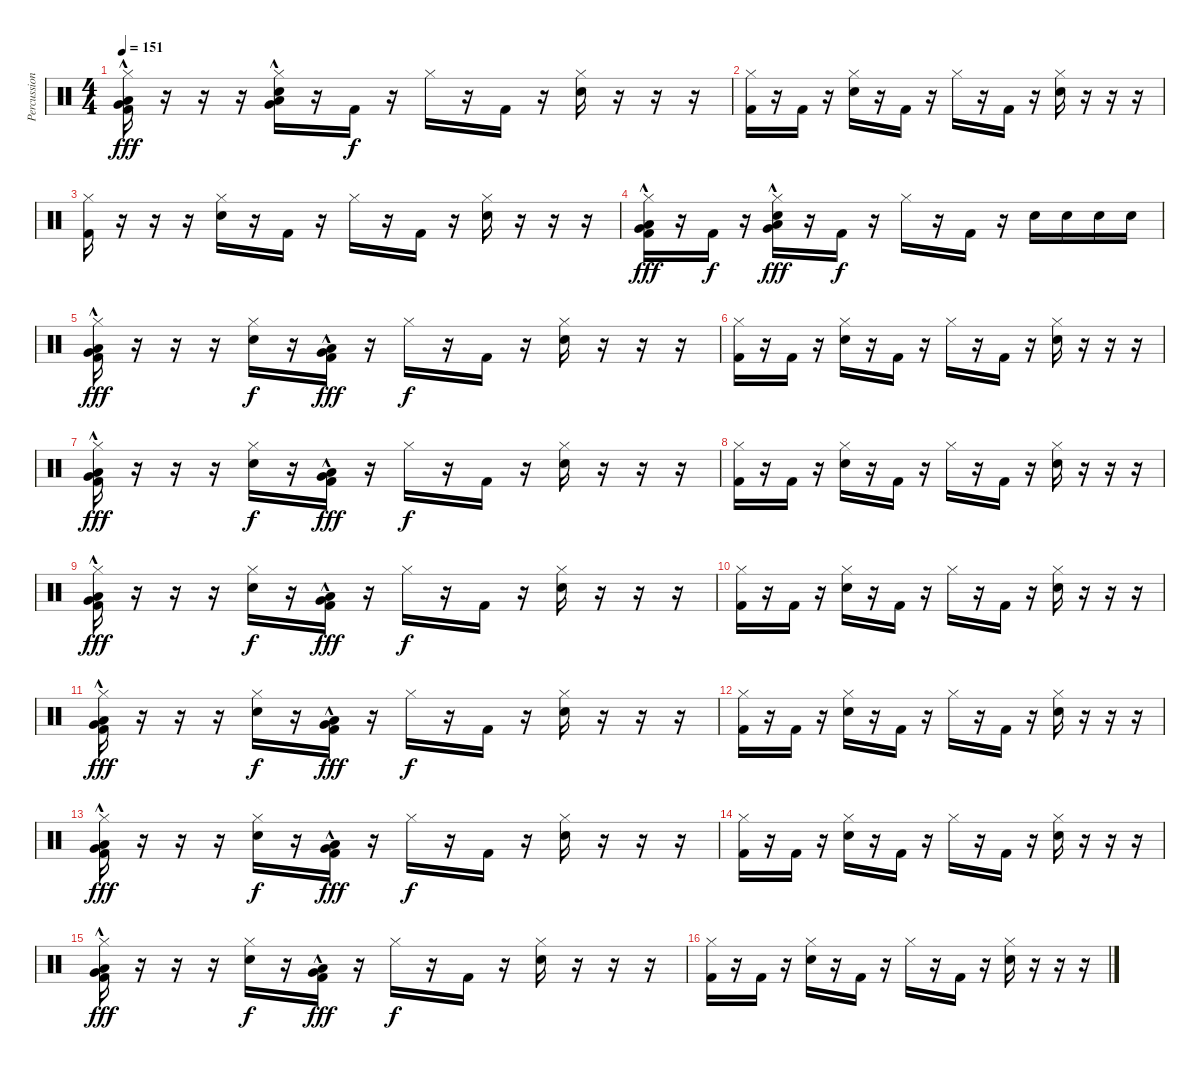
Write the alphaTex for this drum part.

\track ("Percussion" "Percussion") {instrument percussion}
\staff {score}
\articulation defaults
\ts (4 4)
\tempo 151
\clef neutral
\ks c
("Hi-Hat (closed)" "Very Low Tom (hit)"{hac} "Low Floor Tom (hit)"{hac} "Kick (hit) 2").16{dy fff} r.16 r.16 r.16 ("Hi-Hat (closed)" "Very Low Tom (hit)"{hac} "Low Floor Tom (hit)"{hac} "Snare (hit) 2").16 r.16 "Kick (hit) 2".16{dy f} r.16 "Hi-Hat (closed)".16 r.16 "Kick (hit) 2".16 r.16 ("Hi-Hat (closed)" "Snare (hit) 2").16 r.16 r.16 r.16 |
("Hi-Hat (closed)" "Kick (hit) 2").16 r.16 "Kick (hit) 2".16 r.16 ("Hi-Hat (closed)" "Snare (hit) 2").16 r.16 "Kick (hit) 2".16 r.16 "Hi-Hat (closed)".16 r.16 "Kick (hit) 2".16 r.16 ("Hi-Hat (closed)" "Snare (hit) 2").16 r.16 r.16 r.16 |
("Hi-Hat (closed)" "Kick (hit) 2").16 r.16 r.16 r.16 ("Hi-Hat (closed)" "Snare (hit) 2").16 r.16 "Kick (hit) 2".16 r.16 "Hi-Hat (closed)".16 r.16 "Kick (hit) 2".16 r.16 ("Hi-Hat (closed)" "Snare (hit) 2").16 r.16 r.16 r.16 |
("Hi-Hat (closed)" "Very Low Tom (hit)"{hac} "Low Floor Tom (hit)"{hac} "Kick (hit) 2").16{dy fff} r.16 "Kick (hit) 2".16{dy f} r.16 ("Hi-Hat (closed)" "Very Low Tom (hit)"{hac} "Low Floor Tom (hit)"{hac} "Snare (hit) 2").16{dy fff} r.16 "Kick (hit) 2".16{dy f} r.16 "Hi-Hat (closed)".16 r.16 "Kick (hit) 2".16 r.16 "Snare (hit) 2".16 "Snare (hit) 2".16 "Snare (hit) 2".16 "Snare (hit) 2".16 |
("Hi-Hat (closed)" "Low Floor Tom (hit)"{hac} "Very Low Tom (hit)"{hac} "Kick (hit) 2").16{dy fff} r.16 r.16 r.16 ("Hi-Hat (closed)" "Snare (hit) 2").16{dy f} r.16 ("Low Floor Tom (hit)"{hac} "Very Low Tom (hit)"{hac} "Kick (hit) 2").16{dy fff} r.16 "Hi-Hat (closed)".16{dy f} r.16 "Kick (hit) 2".16 r.16 ("Hi-Hat (closed)" "Snare (hit) 2").16 r.16 r.16 r.16 |
("Hi-Hat (closed)" "Kick (hit) 2").16 r.16 "Kick (hit) 2".16 r.16 ("Hi-Hat (closed)" "Snare (hit) 2").16 r.16 "Kick (hit) 2".16 r.16 "Hi-Hat (closed)".16 r.16 "Kick (hit) 2".16 r.16 ("Hi-Hat (closed)" "Snare (hit) 2").16 r.16 r.16 r.16 |
("Hi-Hat (closed)" "Low Floor Tom (hit)"{hac} "Very Low Tom (hit)"{hac} "Kick (hit) 2").16{dy fff} r.16 r.16 r.16 ("Hi-Hat (closed)" "Snare (hit) 2").16{dy f} r.16 ("Low Floor Tom (hit)"{hac} "Very Low Tom (hit)"{hac} "Kick (hit) 2").16{dy fff} r.16 "Hi-Hat (closed)".16{dy f} r.16 "Kick (hit) 2".16 r.16 ("Hi-Hat (closed)" "Snare (hit) 2").16 r.16 r.16 r.16 |
("Hi-Hat (closed)" "Kick (hit) 2").16 r.16 "Kick (hit) 2".16 r.16 ("Hi-Hat (closed)" "Snare (hit) 2").16 r.16 "Kick (hit) 2".16 r.16 "Hi-Hat (closed)".16 r.16 "Kick (hit) 2".16 r.16 ("Hi-Hat (closed)" "Snare (hit) 2").16 r.16 r.16 r.16 |
("Hi-Hat (closed)" "Low Floor Tom (hit)"{hac} "Very Low Tom (hit)"{hac} "Kick (hit) 2").16{dy fff} r.16 r.16 r.16 ("Hi-Hat (closed)" "Snare (hit) 2").16{dy f} r.16 ("Low Floor Tom (hit)"{hac} "Very Low Tom (hit)"{hac} "Kick (hit) 2").16{dy fff} r.16 "Hi-Hat (closed)".16{dy f} r.16 "Kick (hit) 2".16 r.16 ("Hi-Hat (closed)" "Snare (hit) 2").16 r.16 r.16 r.16 |
("Hi-Hat (closed)" "Kick (hit) 2").16 r.16 "Kick (hit) 2".16 r.16 ("Hi-Hat (closed)" "Snare (hit) 2").16 r.16 "Kick (hit) 2".16 r.16 "Hi-Hat (closed)".16 r.16 "Kick (hit) 2".16 r.16 ("Hi-Hat (closed)" "Snare (hit) 2").16 r.16 r.16 r.16 |
("Hi-Hat (closed)" "Low Floor Tom (hit)"{hac} "Very Low Tom (hit)"{hac} "Kick (hit) 2").16{dy fff} r.16 r.16 r.16 ("Hi-Hat (closed)" "Snare (hit) 2").16{dy f} r.16 ("Low Floor Tom (hit)"{hac} "Very Low Tom (hit)"{hac} "Kick (hit) 2").16{dy fff} r.16 "Hi-Hat (closed)".16{dy f} r.16 "Kick (hit) 2".16 r.16 ("Hi-Hat (closed)" "Snare (hit) 2").16 r.16 r.16 r.16 |
("Hi-Hat (closed)" "Kick (hit) 2").16 r.16 "Kick (hit) 2".16 r.16 ("Hi-Hat (closed)" "Snare (hit) 2").16 r.16 "Kick (hit) 2".16 r.16 "Hi-Hat (closed)".16 r.16 "Kick (hit) 2".16 r.16 ("Hi-Hat (closed)" "Snare (hit) 2").16 r.16 r.16 r.16 |
("Hi-Hat (closed)" "Low Floor Tom (hit)"{hac} "Very Low Tom (hit)"{hac} "Kick (hit) 2").16{dy fff} r.16 r.16 r.16 ("Hi-Hat (closed)" "Snare (hit) 2").16{dy f} r.16 ("Low Floor Tom (hit)"{hac} "Very Low Tom (hit)"{hac} "Kick (hit) 2").16{dy fff} r.16 "Hi-Hat (closed)".16{dy f} r.16 "Kick (hit) 2".16 r.16 ("Hi-Hat (closed)" "Snare (hit) 2").16 r.16 r.16 r.16 |
("Hi-Hat (closed)" "Kick (hit) 2").16 r.16 "Kick (hit) 2".16 r.16 ("Hi-Hat (closed)" "Snare (hit) 2").16 r.16 "Kick (hit) 2".16 r.16 "Hi-Hat (closed)".16 r.16 "Kick (hit) 2".16 r.16 ("Hi-Hat (closed)" "Snare (hit) 2").16 r.16 r.16 r.16 |
("Hi-Hat (closed)" "Low Floor Tom (hit)"{hac} "Very Low Tom (hit)"{hac} "Kick (hit) 2").16{dy fff} r.16 r.16 r.16 ("Hi-Hat (closed)" "Snare (hit) 2").16{dy f} r.16 ("Low Floor Tom (hit)"{hac} "Very Low Tom (hit)"{hac} "Kick (hit) 2").16{dy fff} r.16 "Hi-Hat (closed)".16{dy f} r.16 "Kick (hit) 2".16 r.16 ("Hi-Hat (closed)" "Snare (hit) 2").16 r.16 r.16 r.16 |
("Hi-Hat (closed)" "Kick (hit) 2").16 r.16 "Kick (hit) 2".16 r.16 ("Hi-Hat (closed)" "Snare (hit) 2").16 r.16 "Kick (hit) 2".16 r.16 "Hi-Hat (closed)".16 r.16 "Kick (hit) 2".16 r.16 ("Hi-Hat (closed)" "Snare (hit) 2").16 r.16 r.16 r.16
